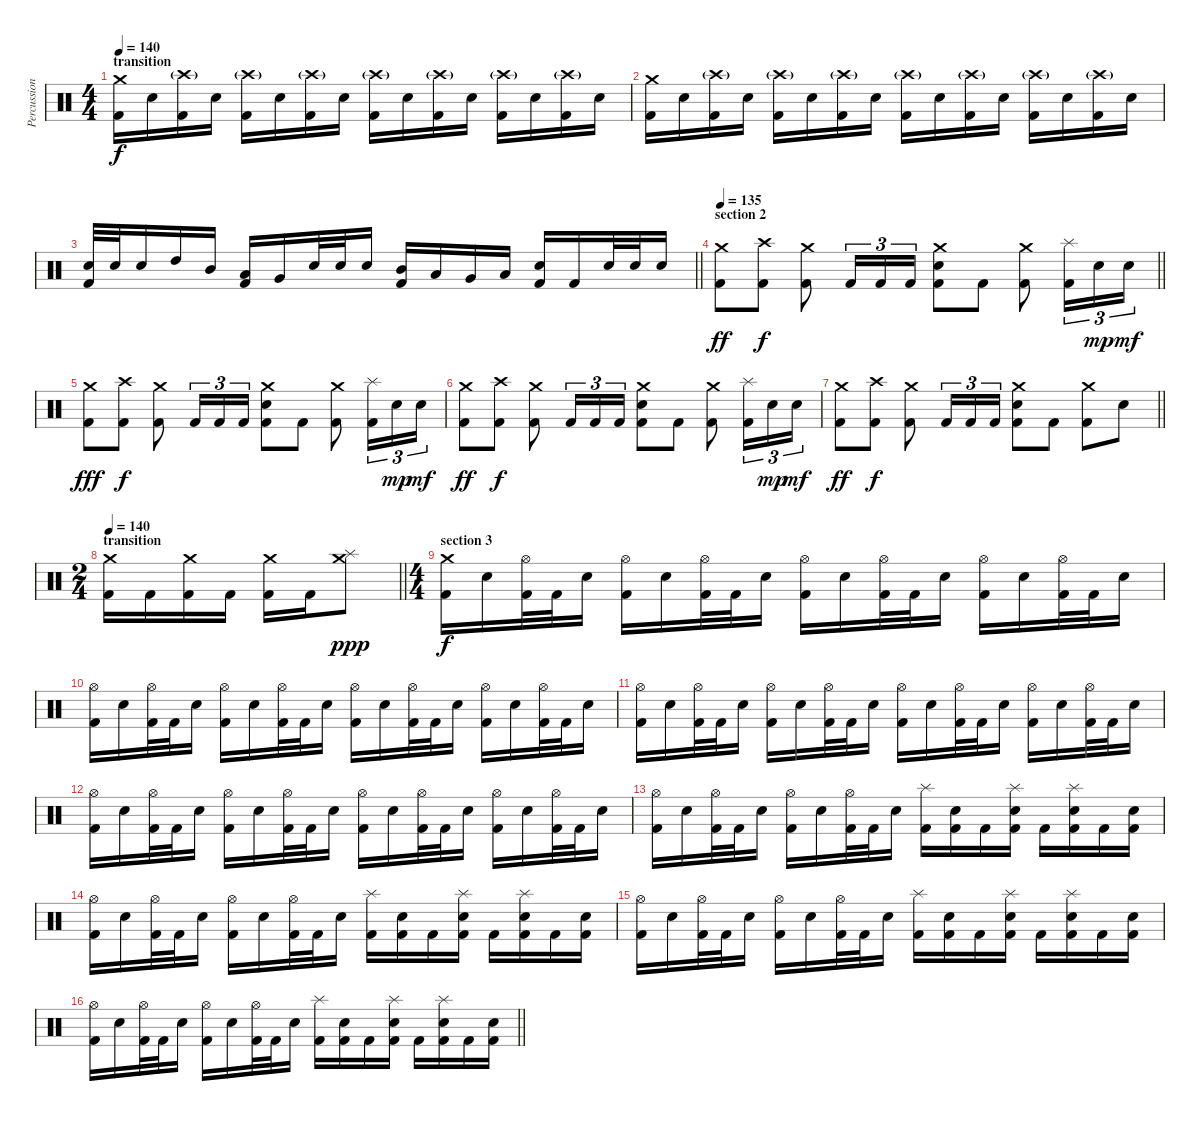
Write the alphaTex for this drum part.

\track ("Percussion" "Percussion") {instrument percussion}
\staff {score}
\articulation defaults
\ts (4 4)
\section ("" "transition")
\tempo 140
\clef neutral
\ks c
("Crash medium (hit)" "Kick (hit) 2").16{dy f} "Electric Snare (hit)".16 ("Crash high (hit)"{g} "Kick (hit) 2").16 "Electric Snare (hit)".16 ("Crash high (hit)"{g} "Kick (hit) 2").16 "Electric Snare (hit)".16 ("Crash high (hit)"{g} "Kick (hit) 2").16 "Electric Snare (hit)".16 ("Crash high (hit)"{g} "Kick (hit) 2").16 "Electric Snare (hit)".16 ("Crash high (hit)"{g} "Kick (hit) 2").16 "Electric Snare (hit)".16 ("Crash high (hit)"{g} "Kick (hit) 2").16 "Electric Snare (hit)".16 ("Crash high (hit)"{g} "Kick (hit) 2").16 "Electric Snare (hit)".16 |
("Crash medium (hit)" "Kick (hit) 2").16 "Electric Snare (hit)".16 ("Crash high (hit)"{g} "Kick (hit) 2").16 "Electric Snare (hit)".16 ("Crash high (hit)"{g} "Kick (hit) 2").16 "Electric Snare (hit)".16 ("Crash high (hit)"{g} "Kick (hit) 2").16 "Electric Snare (hit)".16 ("Crash high (hit)"{g} "Kick (hit) 2").16 "Electric Snare (hit)".16 ("Crash high (hit)"{g} "Kick (hit) 2").16 "Electric Snare (hit)".16 ("Crash high (hit)"{g} "Kick (hit) 2").16 "Electric Snare (hit)".16 ("Crash high (hit)"{g} "Kick (hit) 2").16 "Electric Snare (hit)".16 |
\barLineRight lightlight
("Electric Snare (hit)" "Kick (hit) 2").32 "Electric Snare (hit)".32 "Electric Snare (hit)".16 "High Tom (hit)".16 "Mid Tom (hit)".16 ("Low Tom (hit)" "Kick (hit) 2").16 "Very Low Tom (hit)".16 "Electric Snare (hit)".32 "Electric Snare (hit)".32 "Electric Snare (hit)".16 ("Mid Tom (hit)" "Kick (hit) 2").16 "Low Tom (hit)".16 "Very Low Tom (hit)".16 "Low Floor Tom (hit)".16 ("Electric Snare (hit)" "Kick (hit) 2").16 "Kick (hit) 2".16 "Electric Snare (hit)".32 "Electric Snare (hit)".32 "Electric Snare (hit)".16 |
\section ("" "section 2")
\tempo 135
\barLineRight lightlight
("Crash medium (hit)" "Kick (hit) 2").8{dy ff} ("Crash high (hit)" "Kick (hit) 2").8{dy f} ("Crash medium (hit)" "Kick (hit) 2").8 "Kick (hit) 2".16{tu (3 2)} "Kick (hit) 2".16{tu (3 2)} "Kick (hit) 2".16{tu (3 2)} ("Crash medium (hit)" "Electric Snare (hit)" "Kick (hit) 2").8 "Kick (hit) 2".8 ("Crash medium (hit)" "Kick (hit) 2").8 ("Splash (hit)" "Kick (hit) 2").16{tu (3 2)} "Electric Snare (hit)".16{tu (3 2) dy mp} "Electric Snare (hit)".16{tu (3 2) dy mf} |
("Crash medium (hit)" "Kick (hit) 2").8{dy fff} ("Crash high (hit)" "Kick (hit) 2").8{dy f} ("Crash medium (hit)" "Kick (hit) 2").8 "Kick (hit) 2".16{tu (3 2)} "Kick (hit) 2".16{tu (3 2)} "Kick (hit) 2".16{tu (3 2)} ("Crash medium (hit)" "Electric Snare (hit)" "Kick (hit) 2").8 "Kick (hit) 2".8 ("Crash medium (hit)" "Kick (hit) 2").8 ("Splash (hit)" "Kick (hit) 2").16{tu (3 2)} "Electric Snare (hit)".16{tu (3 2) dy mp} "Electric Snare (hit)".16{tu (3 2) dy mf} |
("Crash medium (hit)" "Kick (hit) 2").8{dy ff} ("Crash high (hit)" "Kick (hit) 2").8{dy f} ("Crash medium (hit)" "Kick (hit) 2").8 "Kick (hit) 2".16{tu (3 2)} "Kick (hit) 2".16{tu (3 2)} "Kick (hit) 2".16{tu (3 2)} ("Crash medium (hit)" "Electric Snare (hit)" "Kick (hit) 2").8 "Kick (hit) 2".8 ("Crash medium (hit)" "Kick (hit) 2").8 ("Splash (hit)" "Kick (hit) 2").16{tu (3 2)} "Electric Snare (hit)".16{tu (3 2) dy mp} "Electric Snare (hit)".16{tu (3 2) dy mf} |
\barLineRight lightlight
("Crash medium (hit)" "Kick (hit) 2").8{dy ff} ("Crash high (hit)" "Kick (hit) 2").8{dy f} ("Crash medium (hit)" "Kick (hit) 2").8 "Kick (hit) 2".16{tu (3 2)} "Kick (hit) 2".16{tu (3 2)} "Kick (hit) 2".16{tu (3 2)} ("Crash medium (hit)" "Electric Snare (hit)" "Kick (hit) 2").8 "Kick (hit) 2".8 ("Crash medium (hit)" "Kick (hit) 2").8 "Electric Snare (hit)".8 |
\ts (2 4)
\section ("" "transition")
\tempo 140
\barLineRight lightlight
("Crash medium (hit)" "Kick (hit) 2").16 "Kick (hit) 2".16 ("Crash medium (hit)" "Kick (hit) 2").16 "Kick (hit) 2".16 ("Crash medium (hit)" "Kick (hit) 2").16 "Kick (hit) 2".16 ("Crash medium (hit)" "Splash (hit)").8{dy ppp} |
\ts (4 4)
\section ("" "section 3")
("Crash medium (hit)" "Kick (hit) 2").16{dy f} "Electric Snare (hit)".16 ("Hi-Hat (open)" "Kick (hit) 2").32 "Kick (hit) 2".32 "Electric Snare (hit)".16 ("Hi-Hat (open)" "Kick (hit) 2").16 "Electric Snare (hit)".16 ("Hi-Hat (open)" "Kick (hit) 2").32 "Kick (hit) 2".32 "Electric Snare (hit)".16 ("Hi-Hat (open)" "Kick (hit) 2").16 "Electric Snare (hit)".16 ("Hi-Hat (open)" "Kick (hit) 2").32 "Kick (hit) 2".32 "Electric Snare (hit)".16 ("Hi-Hat (open)" "Kick (hit) 2").16 "Electric Snare (hit)".16 ("Hi-Hat (open)" "Kick (hit) 2").32 "Kick (hit) 2".32 "Electric Snare (hit)".16 |
("Hi-Hat (open)" "Kick (hit) 2").16 "Electric Snare (hit)".16 ("Hi-Hat (open)" "Kick (hit) 2").32 "Kick (hit) 2".32 "Electric Snare (hit)".16 ("Hi-Hat (open)" "Kick (hit) 2").16 "Electric Snare (hit)".16 ("Hi-Hat (open)" "Kick (hit) 2").32 "Kick (hit) 2".32 "Electric Snare (hit)".16 ("Hi-Hat (open)" "Kick (hit) 2").16 "Electric Snare (hit)".16 ("Hi-Hat (open)" "Kick (hit) 2").32 "Kick (hit) 2".32 "Electric Snare (hit)".16 ("Hi-Hat (open)" "Kick (hit) 2").16 "Electric Snare (hit)".16 ("Hi-Hat (open)" "Kick (hit) 2").32 "Kick (hit) 2".32 "Electric Snare (hit)".16 |
("Hi-Hat (open)" "Kick (hit) 2").16 "Electric Snare (hit)".16 ("Hi-Hat (open)" "Kick (hit) 2").32 "Kick (hit) 2".32 "Electric Snare (hit)".16 ("Hi-Hat (open)" "Kick (hit) 2").16 "Electric Snare (hit)".16 ("Hi-Hat (open)" "Kick (hit) 2").32 "Kick (hit) 2".32 "Electric Snare (hit)".16 ("Hi-Hat (open)" "Kick (hit) 2").16 "Electric Snare (hit)".16 ("Hi-Hat (open)" "Kick (hit) 2").32 "Kick (hit) 2".32 "Electric Snare (hit)".16 ("Hi-Hat (open)" "Kick (hit) 2").16 "Electric Snare (hit)".16 ("Hi-Hat (open)" "Kick (hit) 2").32 "Kick (hit) 2".32 "Electric Snare (hit)".16 |
("Hi-Hat (open)" "Kick (hit) 2").16 "Electric Snare (hit)".16 ("Hi-Hat (open)" "Kick (hit) 2").32 "Kick (hit) 2".32 "Electric Snare (hit)".16 ("Hi-Hat (open)" "Kick (hit) 2").16 "Electric Snare (hit)".16 ("Hi-Hat (open)" "Kick (hit) 2").32 "Kick (hit) 2".32 "Electric Snare (hit)".16 ("Hi-Hat (open)" "Kick (hit) 2").16 "Electric Snare (hit)".16 ("Hi-Hat (open)" "Kick (hit) 2").32 "Kick (hit) 2".32 "Electric Snare (hit)".16 ("Hi-Hat (open)" "Kick (hit) 2").16 "Electric Snare (hit)".16 ("Hi-Hat (open)" "Kick (hit) 2").32 "Kick (hit) 2".32 "Electric Snare (hit)".16 |
("Hi-Hat (open)" "Kick (hit) 2").16 "Electric Snare (hit)".16 ("Hi-Hat (open)" "Kick (hit) 2").32 "Kick (hit) 2".32 "Electric Snare (hit)".16 ("Hi-Hat (open)" "Kick (hit) 2").16 "Electric Snare (hit)".16 ("Hi-Hat (open)" "Kick (hit) 2").32 "Kick (hit) 2".32 "Electric Snare (hit)".16 ("Splash (hit)" "Kick (hit) 2").16 ("Electric Snare (hit)" "Kick (hit) 2").16 "Kick (hit) 2".16 ("Splash (hit)" "Electric Snare (hit)" "Kick (hit) 2").16 "Kick (hit) 2".16 ("Splash (hit)" "Electric Snare (hit)" "Kick (hit) 2").16 "Kick (hit) 2".16 ("Electric Snare (hit)" "Kick (hit) 2").16 |
("Hi-Hat (open)" "Kick (hit) 2").16 "Electric Snare (hit)".16 ("Hi-Hat (open)" "Kick (hit) 2").32 "Kick (hit) 2".32 "Electric Snare (hit)".16 ("Hi-Hat (open)" "Kick (hit) 2").16 "Electric Snare (hit)".16 ("Hi-Hat (open)" "Kick (hit) 2").32 "Kick (hit) 2".32 "Electric Snare (hit)".16 ("Splash (hit)" "Kick (hit) 2").16 ("Electric Snare (hit)" "Kick (hit) 2").16 "Kick (hit) 2".16 ("Splash (hit)" "Electric Snare (hit)" "Kick (hit) 2").16 "Kick (hit) 2".16 ("Splash (hit)" "Electric Snare (hit)" "Kick (hit) 2").16 "Kick (hit) 2".16 ("Electric Snare (hit)" "Kick (hit) 2").16 |
("Hi-Hat (open)" "Kick (hit) 2").16 "Electric Snare (hit)".16 ("Hi-Hat (open)" "Kick (hit) 2").32 "Kick (hit) 2".32 "Electric Snare (hit)".16 ("Hi-Hat (open)" "Kick (hit) 2").16 "Electric Snare (hit)".16 ("Hi-Hat (open)" "Kick (hit) 2").32 "Kick (hit) 2".32 "Electric Snare (hit)".16 ("Splash (hit)" "Kick (hit) 2").16 ("Electric Snare (hit)" "Kick (hit) 2").16 "Kick (hit) 2".16 ("Splash (hit)" "Electric Snare (hit)" "Kick (hit) 2").16 "Kick (hit) 2".16 ("Splash (hit)" "Electric Snare (hit)" "Kick (hit) 2").16 "Kick (hit) 2".16 ("Electric Snare (hit)" "Kick (hit) 2").16 |
\barLineRight lightlight
("Hi-Hat (open)" "Kick (hit) 2").16 "Electric Snare (hit)".16 ("Hi-Hat (open)" "Kick (hit) 2").32 "Kick (hit) 2".32 "Electric Snare (hit)".16 ("Hi-Hat (open)" "Kick (hit) 2").16 "Electric Snare (hit)".16 ("Hi-Hat (open)" "Kick (hit) 2").32 "Kick (hit) 2".32 "Electric Snare (hit)".16 ("Splash (hit)" "Kick (hit) 2").16 ("Electric Snare (hit)" "Kick (hit) 2").16 "Kick (hit) 2".16 ("Splash (hit)" "Electric Snare (hit)" "Kick (hit) 2").16 "Kick (hit) 2".16 ("Splash (hit)" "Electric Snare (hit)" "Kick (hit) 2").16 "Kick (hit) 2".16 ("Electric Snare (hit)" "Kick (hit) 2").16
